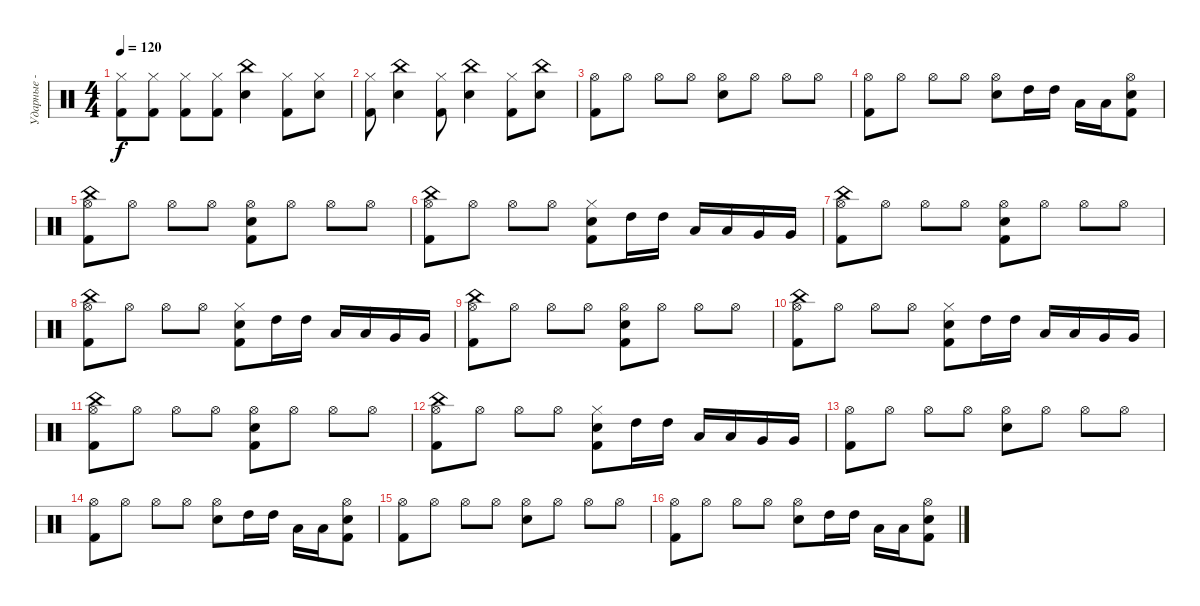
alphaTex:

\track ("Ударные - Ваня" "Ударные - ") {instrument percussion}
\staff {score}
\articulation defaults
\ts (4 4)
\tempo 120
\clef neutral
\ks c
("Hi-Hat (closed)" "Kick (hit) 2").8{dy f} ("Hi-Hat (closed)" "Kick (hit) 2").8 ("Hi-Hat (closed)" "Kick (hit) 2").8 ("Hi-Hat (closed)" "Kick (hit) 2").8 ("China (hit)" "Snare (hit) 2").4 ("Hi-Hat (closed)" "Kick (hit) 2").8 ("Hi-Hat (closed)" "Snare (hit) 2").8 |
("Hi-Hat (closed)" "Kick (hit) 2").8 ("China (hit)" "Snare (hit) 2").4 ("Hi-Hat (closed)" "Kick (hit) 2").8 ("China (hit)" "Snare (hit) 2").4 ("Hi-Hat (closed)" "Kick (hit) 2").8 ("China (hit)" "Snare (hit) 2").8 |
("Hi-Hat (open)" "Kick (hit) 2").8 "Hi-Hat (open)".8 "Hi-Hat (open)".8 "Hi-Hat (open)".8 ("Snare (hit) 2" "Hi-Hat (open)").8 "Hi-Hat (open)".8 "Hi-Hat (open)".8 "Hi-Hat (open)".8 |
("Hi-Hat (open)" "Kick (hit) 2").8 "Hi-Hat (open)".8 "Hi-Hat (open)".8 "Hi-Hat (open)".8 ("Snare (hit) 2" "Hi-Hat (open)").8 "High Tom (hit)".16 "High Tom (hit)".16 "Low Tom (hit)".16 "Low Tom (hit)".16 ("Snare (hit) 2" "Hi-Hat (open)" "Kick (hit) 2").8 |
("China (hit)" "Hi-Hat (open)" "Kick (hit) 2").8 "Hi-Hat (open)".8 "Hi-Hat (open)".8 "Hi-Hat (open)".8 ("Hi-Hat (open)" "Snare (hit) 2" "Kick (hit) 2").8 "Hi-Hat (open)".8 "Hi-Hat (open)".8 "Hi-Hat (open)".8 |
("China (hit)" "Hi-Hat (open)" "Kick (hit) 2").8 "Hi-Hat (open)".8 "Hi-Hat (open)".8 "Hi-Hat (open)".8 ("Hi-Hat (closed)" "Snare (hit) 2" "Kick (hit) 2").8 "High Tom (hit)".16 "High Tom (hit)".16 "Low Tom (hit)".16 "Low Tom (hit)".16 "Very Low Tom (hit)".16 "Very Low Tom (hit)".16 |
("China (hit)" "Hi-Hat (open)" "Kick (hit) 2").8 "Hi-Hat (open)".8 "Hi-Hat (open)".8 "Hi-Hat (open)".8 ("Hi-Hat (open)" "Snare (hit) 2" "Kick (hit) 2").8 "Hi-Hat (open)".8 "Hi-Hat (open)".8 "Hi-Hat (open)".8 |
("China (hit)" "Hi-Hat (open)" "Kick (hit) 2").8 "Hi-Hat (open)".8 "Hi-Hat (open)".8 "Hi-Hat (open)".8 ("Hi-Hat (closed)" "Snare (hit) 2" "Kick (hit) 2").8 "High Tom (hit)".16 "High Tom (hit)".16 "Low Tom (hit)".16 "Low Tom (hit)".16 "Very Low Tom (hit)".16 "Very Low Tom (hit)".16 |
("China (hit)" "Hi-Hat (open)" "Kick (hit) 2").8 "Hi-Hat (open)".8 "Hi-Hat (open)".8 "Hi-Hat (open)".8 ("Hi-Hat (open)" "Snare (hit) 2" "Kick (hit) 2").8 "Hi-Hat (open)".8 "Hi-Hat (open)".8 "Hi-Hat (open)".8 |
("China (hit)" "Hi-Hat (open)" "Kick (hit) 2").8 "Hi-Hat (open)".8 "Hi-Hat (open)".8 "Hi-Hat (open)".8 ("Hi-Hat (closed)" "Snare (hit) 2" "Kick (hit) 2").8 "High Tom (hit)".16 "High Tom (hit)".16 "Low Tom (hit)".16 "Low Tom (hit)".16 "Very Low Tom (hit)".16 "Very Low Tom (hit)".16 |
("China (hit)" "Hi-Hat (open)" "Kick (hit) 2").8 "Hi-Hat (open)".8 "Hi-Hat (open)".8 "Hi-Hat (open)".8 ("Hi-Hat (open)" "Snare (hit) 2" "Kick (hit) 2").8 "Hi-Hat (open)".8 "Hi-Hat (open)".8 "Hi-Hat (open)".8 |
("China (hit)" "Hi-Hat (open)" "Kick (hit) 2").8 "Hi-Hat (open)".8 "Hi-Hat (open)".8 "Hi-Hat (open)".8 ("Hi-Hat (closed)" "Snare (hit) 2" "Kick (hit) 2").8 "High Tom (hit)".16 "High Tom (hit)".16 "Low Tom (hit)".16 "Low Tom (hit)".16 "Very Low Tom (hit)".16 "Very Low Tom (hit)".16 |
("Hi-Hat (open)" "Kick (hit) 2").8 "Hi-Hat (open)".8 "Hi-Hat (open)".8 "Hi-Hat (open)".8 ("Snare (hit) 2" "Hi-Hat (open)").8 "Hi-Hat (open)".8 "Hi-Hat (open)".8 "Hi-Hat (open)".8 |
("Hi-Hat (open)" "Kick (hit) 2").8 "Hi-Hat (open)".8 "Hi-Hat (open)".8 "Hi-Hat (open)".8 ("Snare (hit) 2" "Hi-Hat (open)").8 "High Tom (hit)".16 "High Tom (hit)".16 "Low Tom (hit)".16 "Low Tom (hit)".16 ("Snare (hit) 2" "Hi-Hat (open)" "Kick (hit) 2").8 |
("Hi-Hat (open)" "Kick (hit) 2").8 "Hi-Hat (open)".8 "Hi-Hat (open)".8 "Hi-Hat (open)".8 ("Snare (hit) 2" "Hi-Hat (open)").8 "Hi-Hat (open)".8 "Hi-Hat (open)".8 "Hi-Hat (open)".8 |
("Hi-Hat (open)" "Kick (hit) 2").8 "Hi-Hat (open)".8 "Hi-Hat (open)".8 "Hi-Hat (open)".8 ("Snare (hit) 2" "Hi-Hat (open)").8 "High Tom (hit)".16 "High Tom (hit)".16 "Low Tom (hit)".16 "Low Tom (hit)".16 ("Snare (hit) 2" "Hi-Hat (open)" "Kick (hit) 2").8
